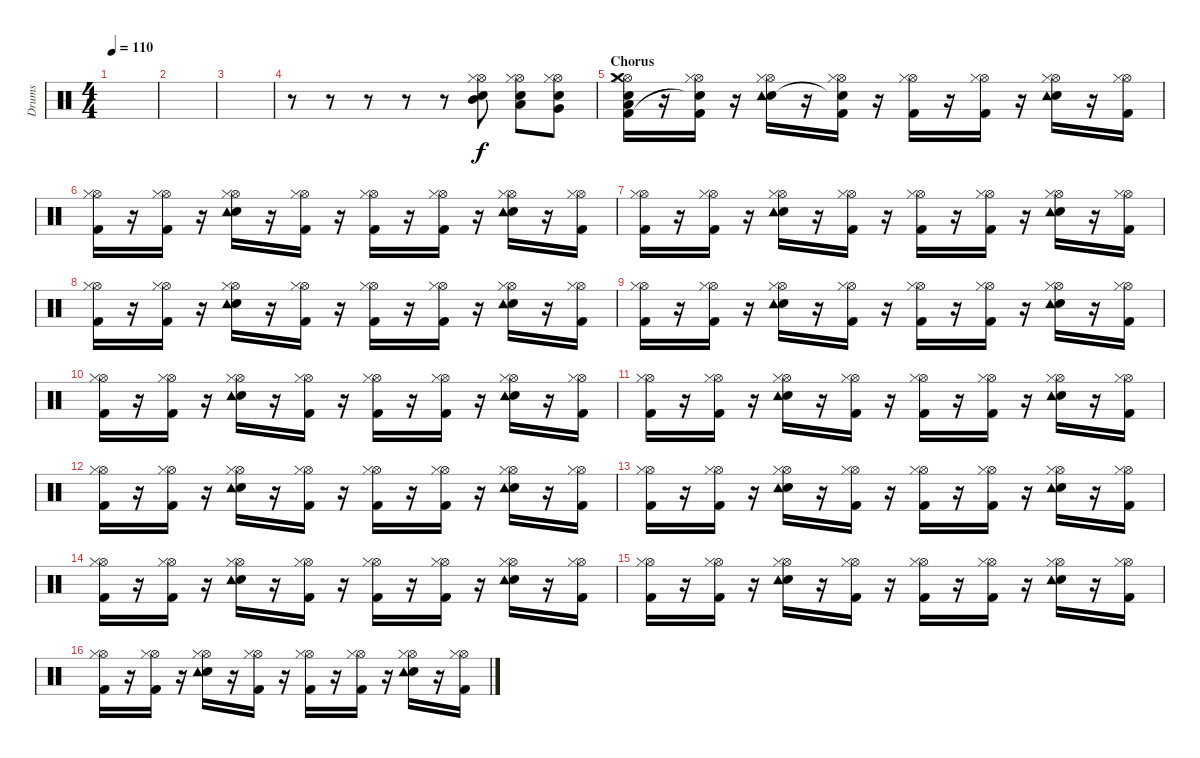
\track ("Drums" "Drums") {instrument percussion}
\staff {score}
\articulation defaults
\ts (4 4)
\tempo 110
\clef neutral
\ks c
|
|
|
r.8 r.8 r.8 r.8 r.8 ("Hi-Hat (open)" "Hi-Hat (closed)" "Snare (hit) 2" "Mid Tom (hit)").8 ("Hi-Hat (open)" "Hi-Hat (closed)" "Snare (hit) 2" "Low Tom (hit)").8 ("Hi-Hat (open)" "Hi-Hat (closed)" "Snare (hit) 2" "Very Low Tom (hit)").8 |
\section ("" "Chorus")
("Hi-Hat (open)" "Hi-Hat (closed)" "Electric Snare (hit)" "Kick (hit) 2" "Low Floor Tom (hit)" "Crash medium (hit)").16 r.16 ("Hi-Hat (open)" "Hi-Hat (closed)" "Kick (hit) 2" "Snare (hit)"{t}).16 r.16 ("Hi-Hat (open)" "Hi-Hat (closed)" "Snare (hit) 2" "Tambourine (hit)").16 r.16 ("Hi-Hat (open)" "Hi-Hat (closed)" "Kick (hit) 2" "Snare (hit)"{t}).16 r.16 ("Hi-Hat (open)" "Hi-Hat (closed)" "Kick (hit) 2").16 r.16 ("Hi-Hat (open)" "Hi-Hat (closed)" "Kick (hit) 2").16 r.16 ("Hi-Hat (open)" "Hi-Hat (closed)" "Snare (hit) 2" "Tambourine (hit)").16 r.16 ("Hi-Hat (open)" "Hi-Hat (closed)" "Kick (hit) 2").16 |
("Hi-Hat (open)" "Hi-Hat (closed)" "Kick (hit) 2").16 r.16 ("Hi-Hat (open)" "Hi-Hat (closed)" "Kick (hit) 2").16 r.16 ("Hi-Hat (open)" "Hi-Hat (closed)" "Snare (hit) 2" "Tambourine (hit)").16 r.16 ("Hi-Hat (open)" "Hi-Hat (closed)" "Kick (hit) 2").16 r.16 ("Hi-Hat (open)" "Hi-Hat (closed)" "Kick (hit) 2").16 r.16 ("Hi-Hat (open)" "Hi-Hat (closed)" "Kick (hit) 2").16 r.16 ("Hi-Hat (open)" "Hi-Hat (closed)" "Snare (hit) 2" "Tambourine (hit)").16 r.16 ("Hi-Hat (open)" "Hi-Hat (closed)" "Kick (hit) 2").16 |
("Hi-Hat (open)" "Hi-Hat (closed)" "Kick (hit) 2").16 r.16 ("Hi-Hat (open)" "Hi-Hat (closed)" "Kick (hit) 2").16 r.16 ("Hi-Hat (open)" "Hi-Hat (closed)" "Snare (hit) 2" "Tambourine (hit)").16 r.16 ("Hi-Hat (open)" "Hi-Hat (closed)" "Kick (hit) 2").16 r.16 ("Hi-Hat (open)" "Hi-Hat (closed)" "Kick (hit) 2").16 r.16 ("Hi-Hat (open)" "Hi-Hat (closed)" "Kick (hit) 2").16 r.16 ("Hi-Hat (open)" "Hi-Hat (closed)" "Snare (hit) 2" "Tambourine (hit)").16 r.16 ("Hi-Hat (open)" "Hi-Hat (closed)" "Kick (hit) 2").16 |
("Hi-Hat (open)" "Hi-Hat (closed)" "Kick (hit) 2").16 r.16 ("Hi-Hat (open)" "Hi-Hat (closed)" "Kick (hit) 2").16 r.16 ("Hi-Hat (open)" "Hi-Hat (closed)" "Snare (hit) 2" "Tambourine (hit)").16 r.16 ("Hi-Hat (open)" "Hi-Hat (closed)" "Kick (hit) 2").16 r.16 ("Hi-Hat (open)" "Hi-Hat (closed)" "Kick (hit) 2").16 r.16 ("Hi-Hat (open)" "Hi-Hat (closed)" "Kick (hit) 2").16 r.16 ("Hi-Hat (open)" "Hi-Hat (closed)" "Snare (hit) 2" "Tambourine (hit)").16 r.16 ("Hi-Hat (open)" "Hi-Hat (closed)" "Kick (hit) 2").16 |
("Hi-Hat (open)" "Hi-Hat (closed)" "Kick (hit) 2").16 r.16 ("Hi-Hat (open)" "Hi-Hat (closed)" "Kick (hit) 2").16 r.16 ("Hi-Hat (open)" "Hi-Hat (closed)" "Snare (hit) 2" "Tambourine (hit)").16 r.16 ("Hi-Hat (open)" "Hi-Hat (closed)" "Kick (hit) 2").16 r.16 ("Hi-Hat (open)" "Hi-Hat (closed)" "Kick (hit) 2").16 r.16 ("Hi-Hat (open)" "Hi-Hat (closed)" "Kick (hit) 2").16 r.16 ("Hi-Hat (open)" "Hi-Hat (closed)" "Snare (hit) 2" "Tambourine (hit)").16 r.16 ("Hi-Hat (open)" "Hi-Hat (closed)" "Kick (hit) 2").16 |
("Hi-Hat (open)" "Hi-Hat (closed)" "Kick (hit) 2").16 r.16 ("Hi-Hat (open)" "Hi-Hat (closed)" "Kick (hit) 2").16 r.16 ("Hi-Hat (open)" "Hi-Hat (closed)" "Snare (hit) 2" "Tambourine (hit)").16 r.16 ("Hi-Hat (open)" "Hi-Hat (closed)" "Kick (hit) 2").16 r.16 ("Hi-Hat (open)" "Hi-Hat (closed)" "Kick (hit) 2").16 r.16 ("Hi-Hat (open)" "Hi-Hat (closed)" "Kick (hit) 2").16 r.16 ("Hi-Hat (open)" "Hi-Hat (closed)" "Snare (hit) 2" "Tambourine (hit)").16 r.16 ("Hi-Hat (open)" "Hi-Hat (closed)" "Kick (hit) 2").16 |
("Hi-Hat (open)" "Hi-Hat (closed)" "Kick (hit) 2").16 r.16 ("Hi-Hat (open)" "Hi-Hat (closed)" "Kick (hit) 2").16 r.16 ("Hi-Hat (open)" "Hi-Hat (closed)" "Snare (hit) 2" "Tambourine (hit)").16 r.16 ("Hi-Hat (open)" "Hi-Hat (closed)" "Kick (hit) 2").16 r.16 ("Hi-Hat (open)" "Hi-Hat (closed)" "Kick (hit) 2").16 r.16 ("Hi-Hat (open)" "Hi-Hat (closed)" "Kick (hit) 2").16 r.16 ("Hi-Hat (open)" "Hi-Hat (closed)" "Snare (hit) 2" "Tambourine (hit)").16 r.16 ("Hi-Hat (open)" "Hi-Hat (closed)" "Kick (hit) 2").16 |
("Hi-Hat (open)" "Hi-Hat (closed)" "Kick (hit) 2").16 r.16 ("Hi-Hat (open)" "Hi-Hat (closed)" "Kick (hit) 2").16 r.16 ("Hi-Hat (open)" "Hi-Hat (closed)" "Snare (hit) 2" "Tambourine (hit)").16 r.16 ("Hi-Hat (open)" "Hi-Hat (closed)" "Kick (hit) 2").16 r.16 ("Hi-Hat (open)" "Hi-Hat (closed)" "Kick (hit) 2").16 r.16 ("Hi-Hat (open)" "Hi-Hat (closed)" "Kick (hit) 2").16 r.16 ("Hi-Hat (open)" "Hi-Hat (closed)" "Snare (hit) 2" "Tambourine (hit)").16 r.16 ("Hi-Hat (open)" "Hi-Hat (closed)" "Kick (hit) 2").16 |
("Hi-Hat (open)" "Hi-Hat (closed)" "Kick (hit) 2").16 r.16 ("Hi-Hat (open)" "Hi-Hat (closed)" "Kick (hit) 2").16 r.16 ("Hi-Hat (open)" "Hi-Hat (closed)" "Snare (hit) 2" "Tambourine (hit)").16 r.16 ("Hi-Hat (open)" "Hi-Hat (closed)" "Kick (hit) 2").16 r.16 ("Hi-Hat (open)" "Hi-Hat (closed)" "Kick (hit) 2").16 r.16 ("Hi-Hat (open)" "Hi-Hat (closed)" "Kick (hit) 2").16 r.16 ("Hi-Hat (open)" "Hi-Hat (closed)" "Snare (hit) 2" "Tambourine (hit)").16 r.16 ("Hi-Hat (open)" "Hi-Hat (closed)" "Kick (hit) 2").16 |
("Hi-Hat (open)" "Hi-Hat (closed)" "Kick (hit) 2").16 r.16 ("Hi-Hat (open)" "Hi-Hat (closed)" "Kick (hit) 2").16 r.16 ("Hi-Hat (open)" "Hi-Hat (closed)" "Snare (hit) 2" "Tambourine (hit)").16 r.16 ("Hi-Hat (open)" "Hi-Hat (closed)" "Kick (hit) 2").16 r.16 ("Hi-Hat (open)" "Hi-Hat (closed)" "Kick (hit) 2").16 r.16 ("Hi-Hat (open)" "Hi-Hat (closed)" "Kick (hit) 2").16 r.16 ("Hi-Hat (open)" "Hi-Hat (closed)" "Snare (hit) 2" "Tambourine (hit)").16 r.16 ("Hi-Hat (open)" "Hi-Hat (closed)" "Kick (hit) 2").16 |
("Hi-Hat (open)" "Hi-Hat (closed)" "Kick (hit) 2").16 r.16 ("Hi-Hat (open)" "Hi-Hat (closed)" "Kick (hit) 2").16 r.16 ("Hi-Hat (open)" "Hi-Hat (closed)" "Snare (hit) 2" "Tambourine (hit)").16 r.16 ("Hi-Hat (open)" "Hi-Hat (closed)" "Kick (hit) 2").16 r.16 ("Hi-Hat (open)" "Hi-Hat (closed)" "Kick (hit) 2").16 r.16 ("Hi-Hat (open)" "Hi-Hat (closed)" "Kick (hit) 2").16 r.16 ("Hi-Hat (open)" "Hi-Hat (closed)" "Snare (hit) 2" "Tambourine (hit)").16 r.16 ("Hi-Hat (open)" "Hi-Hat (closed)" "Kick (hit) 2").16 |
("Hi-Hat (open)" "Hi-Hat (closed)" "Kick (hit) 2").16 r.16 ("Hi-Hat (open)" "Hi-Hat (closed)" "Kick (hit) 2").16 r.16 ("Hi-Hat (open)" "Hi-Hat (closed)" "Snare (hit) 2" "Tambourine (hit)").16 r.16 ("Hi-Hat (open)" "Hi-Hat (closed)" "Kick (hit) 2").16 r.16 ("Hi-Hat (open)" "Hi-Hat (closed)" "Kick (hit) 2").16 r.16 ("Hi-Hat (open)" "Hi-Hat (closed)" "Kick (hit) 2").16 r.16 ("Hi-Hat (open)" "Hi-Hat (closed)" "Snare (hit) 2" "Tambourine (hit)").16 r.16 ("Hi-Hat (open)" "Hi-Hat (closed)" "Kick (hit) 2").16
